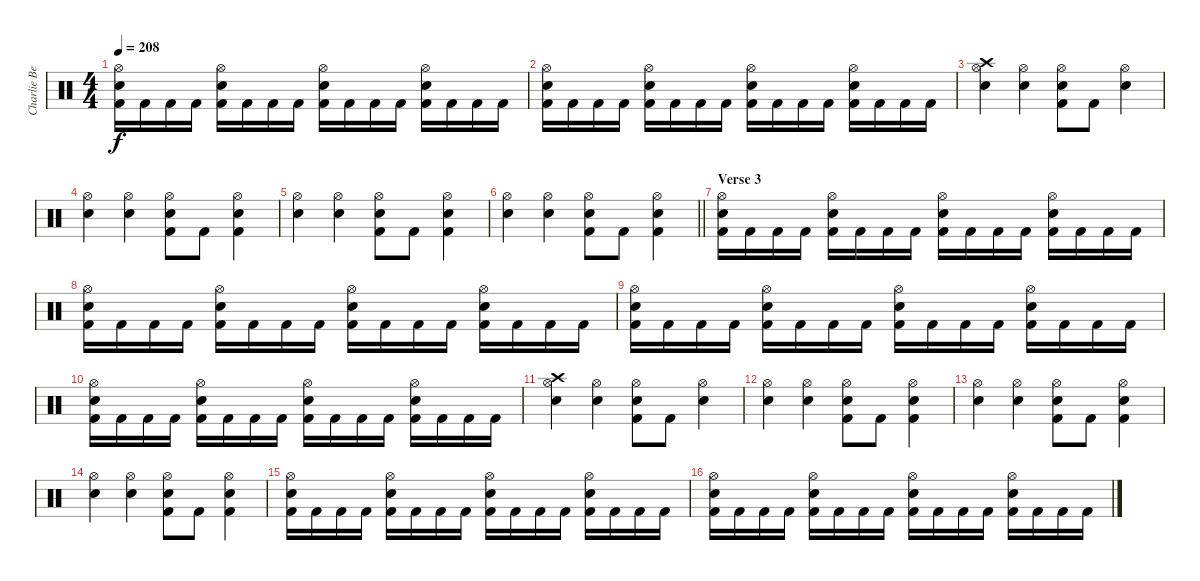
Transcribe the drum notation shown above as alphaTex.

\track ("Charlie Benate" "Charlie Be") {instrument percussion}
\staff {score}
\articulation defaults
\ts (4 4)
\tempo 208
\clef neutral
\ks c
("Hi-Hat (open)" "Electric Snare (hit)" "Kick (hit) 2").16{dy f} "Kick (hit) 2".16 "Kick (hit) 2".16 "Kick (hit) 2".16 ("Hi-Hat (open)" "Electric Snare (hit)" "Kick (hit) 2").16 "Kick (hit) 2".16 "Kick (hit) 2".16 "Kick (hit) 2".16 ("Hi-Hat (open)" "Electric Snare (hit)" "Kick (hit) 2").16 "Kick (hit) 2".16 "Kick (hit) 2".16 "Kick (hit) 2".16 ("Hi-Hat (open)" "Electric Snare (hit)" "Kick (hit) 2").16 "Kick (hit) 2".16 "Kick (hit) 2".16 "Kick (hit) 2".16 |
("Hi-Hat (open)" "Electric Snare (hit)" "Kick (hit) 2").16 "Kick (hit) 2".16 "Kick (hit) 2".16 "Kick (hit) 2".16 ("Hi-Hat (open)" "Electric Snare (hit)" "Kick (hit) 2").16 "Kick (hit) 2".16 "Kick (hit) 2".16 "Kick (hit) 2".16 ("Hi-Hat (open)" "Electric Snare (hit)" "Kick (hit) 2").16 "Kick (hit) 2".16 "Kick (hit) 2".16 "Kick (hit) 2".16 ("Hi-Hat (open)" "Electric Snare (hit)" "Kick (hit) 2").16 "Kick (hit) 2".16 "Kick (hit) 2".16 "Kick (hit) 2".16 |
("Hi-Hat (open)" "Electric Snare (hit)" "Crash high (hit)").4 ("Hi-Hat (open)" "Electric Snare (hit)").4 ("Hi-Hat (open)" "Electric Snare (hit)" "Kick (hit) 2").8 "Kick (hit) 2".8 ("Hi-Hat (open)" "Electric Snare (hit)").4 |
("Hi-Hat (open)" "Electric Snare (hit)").4 ("Hi-Hat (open)" "Electric Snare (hit)").4 ("Hi-Hat (open)" "Electric Snare (hit)" "Kick (hit) 2").8 "Kick (hit) 2".8 ("Hi-Hat (open)" "Electric Snare (hit)" "Kick (hit) 2").4 |
("Hi-Hat (open)" "Electric Snare (hit)").4 ("Hi-Hat (open)" "Electric Snare (hit)").4 ("Hi-Hat (open)" "Electric Snare (hit)" "Kick (hit) 2").8 "Kick (hit) 2".8 ("Hi-Hat (open)" "Electric Snare (hit)" "Kick (hit) 2").4 |
\barLineRight lightlight
("Hi-Hat (open)" "Electric Snare (hit)").4 ("Hi-Hat (open)" "Electric Snare (hit)").4 ("Hi-Hat (open)" "Electric Snare (hit)" "Kick (hit) 2").8 "Kick (hit) 2".8 ("Hi-Hat (open)" "Electric Snare (hit)" "Kick (hit) 2").4 |
\section ("" "Verse 3")
("Hi-Hat (open)" "Electric Snare (hit)" "Kick (hit) 2").16 "Kick (hit) 2".16 "Kick (hit) 2".16 "Kick (hit) 2".16 ("Hi-Hat (open)" "Electric Snare (hit)" "Kick (hit) 2").16 "Kick (hit) 2".16 "Kick (hit) 2".16 "Kick (hit) 2".16 ("Hi-Hat (open)" "Electric Snare (hit)" "Kick (hit) 2").16 "Kick (hit) 2".16 "Kick (hit) 2".16 "Kick (hit) 2".16 ("Hi-Hat (open)" "Electric Snare (hit)" "Kick (hit) 2").16 "Kick (hit) 2".16 "Kick (hit) 2".16 "Kick (hit) 2".16 |
("Hi-Hat (open)" "Electric Snare (hit)" "Kick (hit) 2").16 "Kick (hit) 2".16 "Kick (hit) 2".16 "Kick (hit) 2".16 ("Hi-Hat (open)" "Electric Snare (hit)" "Kick (hit) 2").16 "Kick (hit) 2".16 "Kick (hit) 2".16 "Kick (hit) 2".16 ("Hi-Hat (open)" "Electric Snare (hit)" "Kick (hit) 2").16 "Kick (hit) 2".16 "Kick (hit) 2".16 "Kick (hit) 2".16 ("Hi-Hat (open)" "Electric Snare (hit)" "Kick (hit) 2").16 "Kick (hit) 2".16 "Kick (hit) 2".16 "Kick (hit) 2".16 |
("Hi-Hat (open)" "Electric Snare (hit)" "Kick (hit) 2").16 "Kick (hit) 2".16 "Kick (hit) 2".16 "Kick (hit) 2".16 ("Hi-Hat (open)" "Electric Snare (hit)" "Kick (hit) 2").16 "Kick (hit) 2".16 "Kick (hit) 2".16 "Kick (hit) 2".16 ("Hi-Hat (open)" "Electric Snare (hit)" "Kick (hit) 2").16 "Kick (hit) 2".16 "Kick (hit) 2".16 "Kick (hit) 2".16 ("Hi-Hat (open)" "Electric Snare (hit)" "Kick (hit) 2").16 "Kick (hit) 2".16 "Kick (hit) 2".16 "Kick (hit) 2".16 |
("Hi-Hat (open)" "Electric Snare (hit)" "Kick (hit) 2").16 "Kick (hit) 2".16 "Kick (hit) 2".16 "Kick (hit) 2".16 ("Hi-Hat (open)" "Electric Snare (hit)" "Kick (hit) 2").16 "Kick (hit) 2".16 "Kick (hit) 2".16 "Kick (hit) 2".16 ("Hi-Hat (open)" "Electric Snare (hit)" "Kick (hit) 2").16 "Kick (hit) 2".16 "Kick (hit) 2".16 "Kick (hit) 2".16 ("Hi-Hat (open)" "Electric Snare (hit)" "Kick (hit) 2").16 "Kick (hit) 2".16 "Kick (hit) 2".16 "Kick (hit) 2".16 |
("Hi-Hat (open)" "Electric Snare (hit)" "Crash high (hit)").4 ("Hi-Hat (open)" "Electric Snare (hit)").4 ("Hi-Hat (open)" "Electric Snare (hit)" "Kick (hit) 2").8 "Kick (hit) 2".8 ("Hi-Hat (open)" "Electric Snare (hit)").4 |
("Hi-Hat (open)" "Electric Snare (hit)").4 ("Hi-Hat (open)" "Electric Snare (hit)").4 ("Hi-Hat (open)" "Electric Snare (hit)" "Kick (hit) 2").8 "Kick (hit) 2".8 ("Hi-Hat (open)" "Electric Snare (hit)" "Kick (hit) 2").4 |
("Hi-Hat (open)" "Electric Snare (hit)").4 ("Hi-Hat (open)" "Electric Snare (hit)").4 ("Hi-Hat (open)" "Electric Snare (hit)" "Kick (hit) 2").8 "Kick (hit) 2".8 ("Hi-Hat (open)" "Electric Snare (hit)" "Kick (hit) 2").4 |
("Hi-Hat (open)" "Electric Snare (hit)").4 ("Hi-Hat (open)" "Electric Snare (hit)").4 ("Hi-Hat (open)" "Electric Snare (hit)" "Kick (hit) 2").8 "Kick (hit) 2".8 ("Hi-Hat (open)" "Electric Snare (hit)" "Kick (hit) 2").4 |
("Hi-Hat (open)" "Electric Snare (hit)" "Kick (hit) 2").16 "Kick (hit) 2".16 "Kick (hit) 2".16 "Kick (hit) 2".16 ("Hi-Hat (open)" "Electric Snare (hit)" "Kick (hit) 2").16 "Kick (hit) 2".16 "Kick (hit) 2".16 "Kick (hit) 2".16 ("Hi-Hat (open)" "Electric Snare (hit)" "Kick (hit) 2").16 "Kick (hit) 2".16 "Kick (hit) 2".16 "Kick (hit) 2".16 ("Hi-Hat (open)" "Electric Snare (hit)" "Kick (hit) 2").16 "Kick (hit) 2".16 "Kick (hit) 2".16 "Kick (hit) 2".16 |
("Hi-Hat (open)" "Electric Snare (hit)" "Kick (hit) 2").16 "Kick (hit) 2".16 "Kick (hit) 2".16 "Kick (hit) 2".16 ("Hi-Hat (open)" "Electric Snare (hit)" "Kick (hit) 2").16 "Kick (hit) 2".16 "Kick (hit) 2".16 "Kick (hit) 2".16 ("Hi-Hat (open)" "Electric Snare (hit)" "Kick (hit) 2").16 "Kick (hit) 2".16 "Kick (hit) 2".16 "Kick (hit) 2".16 ("Hi-Hat (open)" "Electric Snare (hit)" "Kick (hit) 2").16 "Kick (hit) 2".16 "Kick (hit) 2".16 "Kick (hit) 2".16
